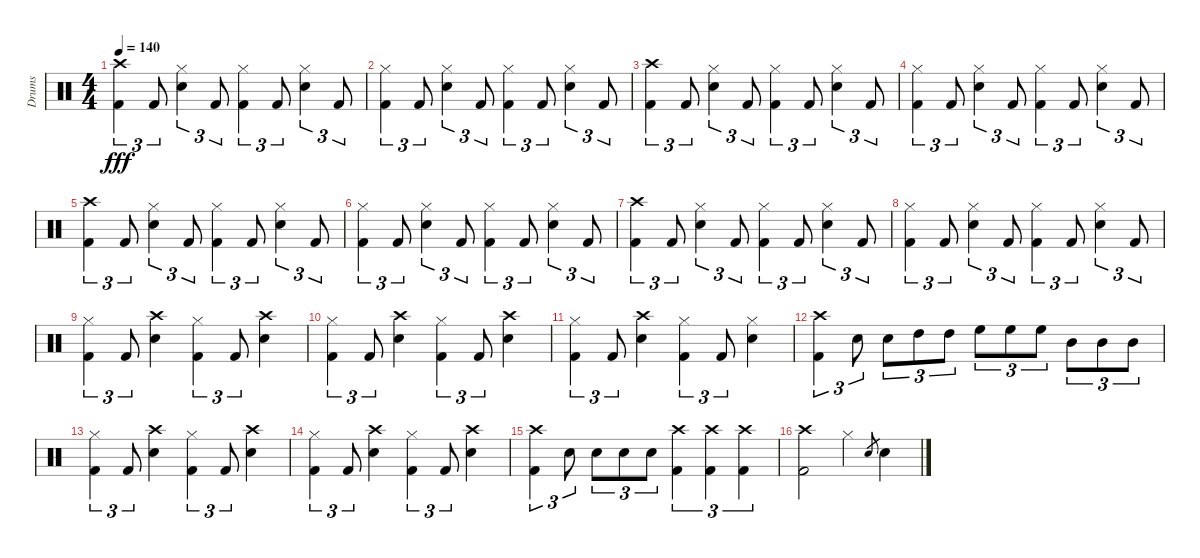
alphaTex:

\track ("Drums" "Drums") {instrument percussion}
\staff {score}
\articulation defaults
\ts (4 4)
\tempo 140
\clef neutral
\ks c
("Crash high (hit)" "Kick (hit) 2").4{tu (3 2) dy fff} "Kick (hit) 2".8{tu (3 2)} ("Hi-Hat (closed)" "Snare (hit) 2").4{tu (3 2)} "Kick (hit) 2".8{tu (3 2)} ("Kick (hit) 2" "Hi-Hat (closed)").4{tu (3 2)} "Kick (hit) 2".8{tu (3 2)} ("Hi-Hat (closed)" "Snare (hit) 2").4{tu (3 2)} "Kick (hit) 2".8{tu (3 2)} |
("Kick (hit) 2" "Hi-Hat (closed)").4{tu (3 2)} "Kick (hit) 2".8{tu (3 2)} ("Hi-Hat (closed)" "Snare (hit) 2").4{tu (3 2)} "Kick (hit) 2".8{tu (3 2)} ("Kick (hit) 2" "Hi-Hat (closed)").4{tu (3 2)} "Kick (hit) 2".8{tu (3 2)} ("Hi-Hat (closed)" "Snare (hit) 2").4{tu (3 2)} "Kick (hit) 2".8{tu (3 2)} |
("Crash high (hit)" "Kick (hit) 2").4{tu (3 2)} "Kick (hit) 2".8{tu (3 2)} ("Hi-Hat (closed)" "Snare (hit) 2").4{tu (3 2)} "Kick (hit) 2".8{tu (3 2)} ("Kick (hit) 2" "Hi-Hat (closed)").4{tu (3 2)} "Kick (hit) 2".8{tu (3 2)} ("Hi-Hat (closed)" "Snare (hit) 2").4{tu (3 2)} "Kick (hit) 2".8{tu (3 2)} |
("Kick (hit) 2" "Hi-Hat (closed)").4{tu (3 2)} "Kick (hit) 2".8{tu (3 2)} ("Hi-Hat (closed)" "Snare (hit) 2").4{tu (3 2)} "Kick (hit) 2".8{tu (3 2)} ("Kick (hit) 2" "Hi-Hat (closed)").4{tu (3 2)} "Kick (hit) 2".8{tu (3 2)} ("Hi-Hat (closed)" "Snare (hit) 2").4{tu (3 2)} "Kick (hit) 2".8{tu (3 2)} |
("Crash high (hit)" "Kick (hit) 2").4{tu (3 2)} "Kick (hit) 2".8{tu (3 2)} ("Hi-Hat (closed)" "Snare (hit) 2").4{tu (3 2)} "Kick (hit) 2".8{tu (3 2)} ("Kick (hit) 2" "Hi-Hat (closed)").4{tu (3 2)} "Kick (hit) 2".8{tu (3 2)} ("Hi-Hat (closed)" "Snare (hit) 2").4{tu (3 2)} "Kick (hit) 2".8{tu (3 2)} |
("Kick (hit) 2" "Hi-Hat (closed)").4{tu (3 2)} "Kick (hit) 2".8{tu (3 2)} ("Hi-Hat (closed)" "Snare (hit) 2").4{tu (3 2)} "Kick (hit) 2".8{tu (3 2)} ("Kick (hit) 2" "Hi-Hat (closed)").4{tu (3 2)} "Kick (hit) 2".8{tu (3 2)} ("Hi-Hat (closed)" "Snare (hit) 2").4{tu (3 2)} "Kick (hit) 2".8{tu (3 2)} |
("Crash high (hit)" "Kick (hit) 2").4{tu (3 2)} "Kick (hit) 2".8{tu (3 2)} ("Hi-Hat (closed)" "Snare (hit) 2").4{tu (3 2)} "Kick (hit) 2".8{tu (3 2)} ("Kick (hit) 2" "Hi-Hat (closed)").4{tu (3 2)} "Kick (hit) 2".8{tu (3 2)} ("Hi-Hat (closed)" "Snare (hit) 2").4{tu (3 2)} "Kick (hit) 2".8{tu (3 2)} |
("Kick (hit) 2" "Hi-Hat (closed)").4{tu (3 2)} "Kick (hit) 2".8{tu (3 2)} ("Hi-Hat (closed)" "Snare (hit) 2").4{tu (3 2)} "Kick (hit) 2".8{tu (3 2)} ("Kick (hit) 2" "Hi-Hat (closed)").4{tu (3 2)} "Kick (hit) 2".8{tu (3 2)} ("Hi-Hat (closed)" "Snare (hit) 2").4{tu (3 2)} "Kick (hit) 2".8{tu (3 2)} |
("Hi-Hat (closed)" "Kick (hit) 2").4{tu (3 2)} "Kick (hit) 2".8{tu (3 2)} ("Crash high (hit)" "Snare (hit) 2").4 ("Hi-Hat (closed)" "Kick (hit) 2").4{tu (3 2)} "Kick (hit) 2".8{tu (3 2)} ("Crash high (hit)" "Snare (hit) 2").4 |
("Hi-Hat (closed)" "Kick (hit) 2").4{tu (3 2)} "Kick (hit) 2".8{tu (3 2)} ("Crash high (hit)" "Snare (hit) 2").4 ("Hi-Hat (closed)" "Kick (hit) 2").4{tu (3 2)} "Kick (hit) 2".8{tu (3 2)} ("Crash high (hit)" "Snare (hit) 2").4 |
("Hi-Hat (closed)" "Kick (hit) 2").4{tu (3 2)} "Kick (hit) 2".8{tu (3 2)} ("Crash high (hit)" "Snare (hit) 2").4 ("Hi-Hat (closed)" "Kick (hit) 2").4{tu (3 2)} "Kick (hit) 2".8{tu (3 2)} ("Hi-Hat (closed)" "Snare (hit) 2").4 |
("Crash high (hit)" "Kick (hit) 2").4{tu (3 2)} "Snare (hit) 2".8{tu (3 2)} "Snare (hit) 2".8{tu (3 2)} "High Tom (hit)".8{tu (3 2)} "High Tom (hit)".8{tu (3 2)} "High Floor Tom (hit)".8{tu (3 2)} "High Floor Tom (hit)".8{tu (3 2)} "High Floor Tom (hit)".8{tu (3 2)} "Mid Tom (hit)".8{tu (3 2)} "Mid Tom (hit)".8{tu (3 2)} "Mid Tom (hit)".8{tu (3 2)} |
("Hi-Hat (closed)" "Kick (hit) 2").4{tu (3 2)} "Kick (hit) 2".8{tu (3 2)} ("Crash high (hit)" "Snare (hit) 2").4 ("Hi-Hat (closed)" "Kick (hit) 2").4{tu (3 2)} "Kick (hit) 2".8{tu (3 2)} ("Crash high (hit)" "Snare (hit) 2").4 |
("Hi-Hat (closed)" "Kick (hit) 2").4{tu (3 2)} "Kick (hit) 2".8{tu (3 2)} ("Crash high (hit)" "Snare (hit) 2").4 ("Hi-Hat (closed)" "Kick (hit) 2").4{tu (3 2)} "Kick (hit) 2".8{tu (3 2)} ("Crash high (hit)" "Snare (hit) 2").4 |
("Kick (hit) 2" "Crash high (hit)").4{tu (3 2)} "Snare (hit) 2".8{tu (3 2)} "Snare (hit) 2".8{tu (3 2)} "Snare (hit) 2".8{tu (3 2)} "Snare (hit) 2".8{tu (3 2)} ("Kick (hit) 2" "Crash high (hit)").4{tu (3 2)} ("Kick (hit) 2" "Crash high (hit)").4{tu (3 2)} ("Kick (hit) 2" "Crash high (hit)").4{tu (3 2)} |
("Crash high (hit)" "Kick (hit) 2").2 "Hi-Hat (closed)".4 "Snare (hit) 2".8{gr} "Snare (hit) 2".4
